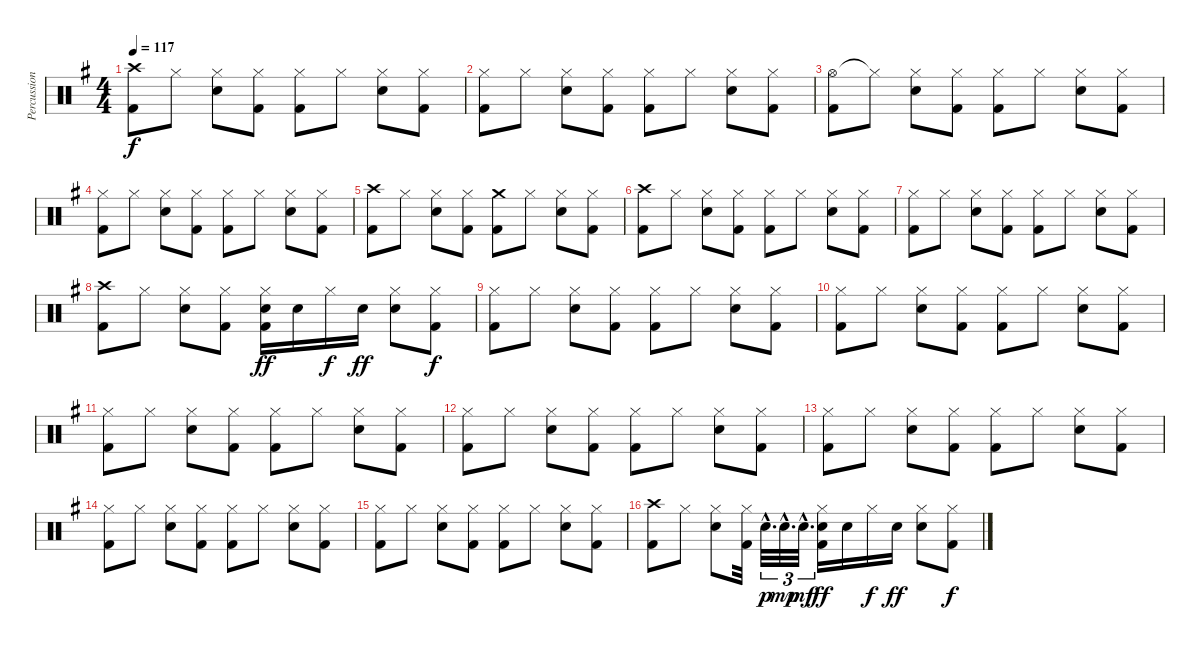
\track ("Percussion" "Percussion") {instrument percussion}
\staff {score}
\articulation defaults
\ts (4 4)
\tempo 117
\clef neutral
\ks g
("Crash high (hit)" "Kick (hit) 2").8{dy f} "Hi-Hat (closed)".8 ("Hi-Hat (closed)" "Electric Snare (hit)").8 ("Hi-Hat (closed)" "Kick (hit) 2").8 ("Hi-Hat (closed)" "Kick (hit) 2").8 "Hi-Hat (closed)".8 ("Hi-Hat (closed)" "Electric Snare (hit)").8 ("Hi-Hat (closed)" "Kick (hit) 2").8 |
("Hi-Hat (closed)" "Kick (hit) 2").8 "Hi-Hat (closed)".8 ("Hi-Hat (closed)" "Electric Snare (hit)").8 ("Hi-Hat (closed)" "Kick (hit) 2").8 ("Hi-Hat (closed)" "Kick (hit) 2").8 "Hi-Hat (closed)".8 ("Hi-Hat (closed)" "Electric Snare (hit)").8 ("Hi-Hat (closed)" "Kick (hit) 2").8 |
("Hi-Hat (open)" "Kick (hit) 2").8 "Hi-Hat (closed)"{t}.8 ("Hi-Hat (closed)" "Electric Snare (hit)").8 ("Hi-Hat (closed)" "Kick (hit) 2").8 ("Hi-Hat (closed)" "Kick (hit) 2").8 "Hi-Hat (closed)".8 ("Hi-Hat (closed)" "Electric Snare (hit)").8 ("Hi-Hat (closed)" "Kick (hit) 2").8 |
("Hi-Hat (closed)" "Kick (hit) 2").8 "Hi-Hat (closed)".8 ("Hi-Hat (closed)" "Electric Snare (hit)").8 ("Hi-Hat (closed)" "Kick (hit) 2").8 ("Hi-Hat (closed)" "Kick (hit) 2").8 "Hi-Hat (closed)".8 ("Hi-Hat (closed)" "Electric Snare (hit)").8 ("Hi-Hat (closed)" "Kick (hit) 2").8 |
("Crash high (hit)" "Kick (hit) 2").8 "Hi-Hat (closed)".8 ("Hi-Hat (closed)" "Electric Snare (hit)").8 ("Hi-Hat (closed)" "Kick (hit) 2").8 ("Crash medium (hit)" "Kick (hit) 2").8 "Hi-Hat (closed)".8 ("Hi-Hat (closed)" "Electric Snare (hit)").8 ("Hi-Hat (closed)" "Kick (hit) 2").8 |
("Crash high (hit)" "Kick (hit) 2").8 "Hi-Hat (closed)".8 ("Hi-Hat (closed)" "Electric Snare (hit)").8 ("Hi-Hat (closed)" "Kick (hit) 2").8 ("Hi-Hat (closed)" "Kick (hit) 2").8 "Hi-Hat (closed)".8 ("Hi-Hat (closed)" "Electric Snare (hit)").8 ("Hi-Hat (closed)" "Kick (hit) 2").8 |
("Hi-Hat (closed)" "Kick (hit) 2").8 "Hi-Hat (closed)".8 ("Hi-Hat (closed)" "Electric Snare (hit)").8 ("Hi-Hat (closed)" "Kick (hit) 2").8 ("Hi-Hat (closed)" "Kick (hit) 2").8 "Hi-Hat (closed)".8 ("Hi-Hat (closed)" "Electric Snare (hit)").8 ("Hi-Hat (closed)" "Kick (hit) 2").8 |
("Crash high (hit)" "Kick (hit) 2").8 "Hi-Hat (closed)".8 ("Hi-Hat (closed)" "Electric Snare (hit)").8 ("Hi-Hat (closed)" "Kick (hit) 2").8 ("Hi-Hat (closed)" "Electric Snare (hit)" "Kick (hit) 2").16{dy ff} "Electric Snare (hit)".16 "Hi-Hat (closed)".16{dy f} "Electric Snare (hit)".16{dy ff} ("Hi-Hat (closed)" "Electric Snare (hit)").8 ("Hi-Hat (closed)" "Kick (hit) 2").8{dy f} |
("Hi-Hat (closed)" "Kick (hit) 2").8 "Hi-Hat (closed)".8 ("Hi-Hat (closed)" "Electric Snare (hit)").8 ("Hi-Hat (closed)" "Kick (hit) 2").8 ("Hi-Hat (closed)" "Kick (hit) 2").8 "Hi-Hat (closed)".8 ("Hi-Hat (closed)" "Electric Snare (hit)").8 ("Hi-Hat (closed)" "Kick (hit) 2").8 |
("Hi-Hat (closed)" "Kick (hit) 2").8 "Hi-Hat (closed)".8 ("Hi-Hat (closed)" "Electric Snare (hit)").8 ("Hi-Hat (closed)" "Kick (hit) 2").8 ("Hi-Hat (closed)" "Kick (hit) 2").8 "Hi-Hat (closed)".8 ("Hi-Hat (closed)" "Electric Snare (hit)").8 ("Hi-Hat (closed)" "Kick (hit) 2").8 |
("Hi-Hat (closed)" "Kick (hit) 2").8 "Hi-Hat (closed)".8 ("Hi-Hat (closed)" "Electric Snare (hit)").8 ("Hi-Hat (closed)" "Kick (hit) 2").8 ("Hi-Hat (closed)" "Kick (hit) 2").8 "Hi-Hat (closed)".8 ("Hi-Hat (closed)" "Electric Snare (hit)").8 ("Hi-Hat (closed)" "Kick (hit) 2").8 |
("Hi-Hat (closed)" "Kick (hit) 2").8 "Hi-Hat (closed)".8 ("Hi-Hat (closed)" "Electric Snare (hit)").8 ("Hi-Hat (closed)" "Kick (hit) 2").8 ("Hi-Hat (closed)" "Kick (hit) 2").8 "Hi-Hat (closed)".8 ("Hi-Hat (closed)" "Electric Snare (hit)").8 ("Hi-Hat (closed)" "Kick (hit) 2").8 |
("Hi-Hat (closed)" "Kick (hit) 2").8 "Hi-Hat (closed)".8 ("Hi-Hat (closed)" "Electric Snare (hit)").8 ("Hi-Hat (closed)" "Kick (hit) 2").8 ("Hi-Hat (closed)" "Kick (hit) 2").8 "Hi-Hat (closed)".8 ("Hi-Hat (closed)" "Electric Snare (hit)").8 ("Hi-Hat (closed)" "Kick (hit) 2").8 |
("Hi-Hat (closed)" "Kick (hit) 2").8 "Hi-Hat (closed)".8 ("Hi-Hat (closed)" "Electric Snare (hit)").8 ("Hi-Hat (closed)" "Kick (hit) 2").8 ("Hi-Hat (closed)" "Kick (hit) 2").8 "Hi-Hat (closed)".8 ("Hi-Hat (closed)" "Electric Snare (hit)").8 ("Hi-Hat (closed)" "Kick (hit) 2").8 |
("Hi-Hat (closed)" "Kick (hit) 2").8 "Hi-Hat (closed)".8 ("Hi-Hat (closed)" "Electric Snare (hit)").8 ("Hi-Hat (closed)" "Kick (hit) 2").8 ("Hi-Hat (closed)" "Kick (hit) 2").8 "Hi-Hat (closed)".8 ("Hi-Hat (closed)" "Electric Snare (hit)").8 ("Hi-Hat (closed)" "Kick (hit) 2").8 |
("Crash high (hit)" "Kick (hit) 2").8 "Hi-Hat (closed)".8 ("Hi-Hat (closed)" "Electric Snare (hit)").8 ("Hi-Hat (closed)" "Kick (hit) 2").32 "Electric Snare (hit)"{hac}.32{d tu (3 2) dy p} "Electric Snare (hit)"{hac}.32{d tu (3 2) dy mp} "Electric Snare (hit)"{hac}.32{d tu (3 2) dy mf} ("Hi-Hat (closed)" "Electric Snare (hit)" "Kick (hit) 2").16{dy ff} "Electric Snare (hit)".16 "Hi-Hat (closed)".16{dy f} "Electric Snare (hit)".16{dy ff} ("Hi-Hat (closed)" "Electric Snare (hit)").8 ("Hi-Hat (closed)" "Kick (hit) 2").8{dy f}
